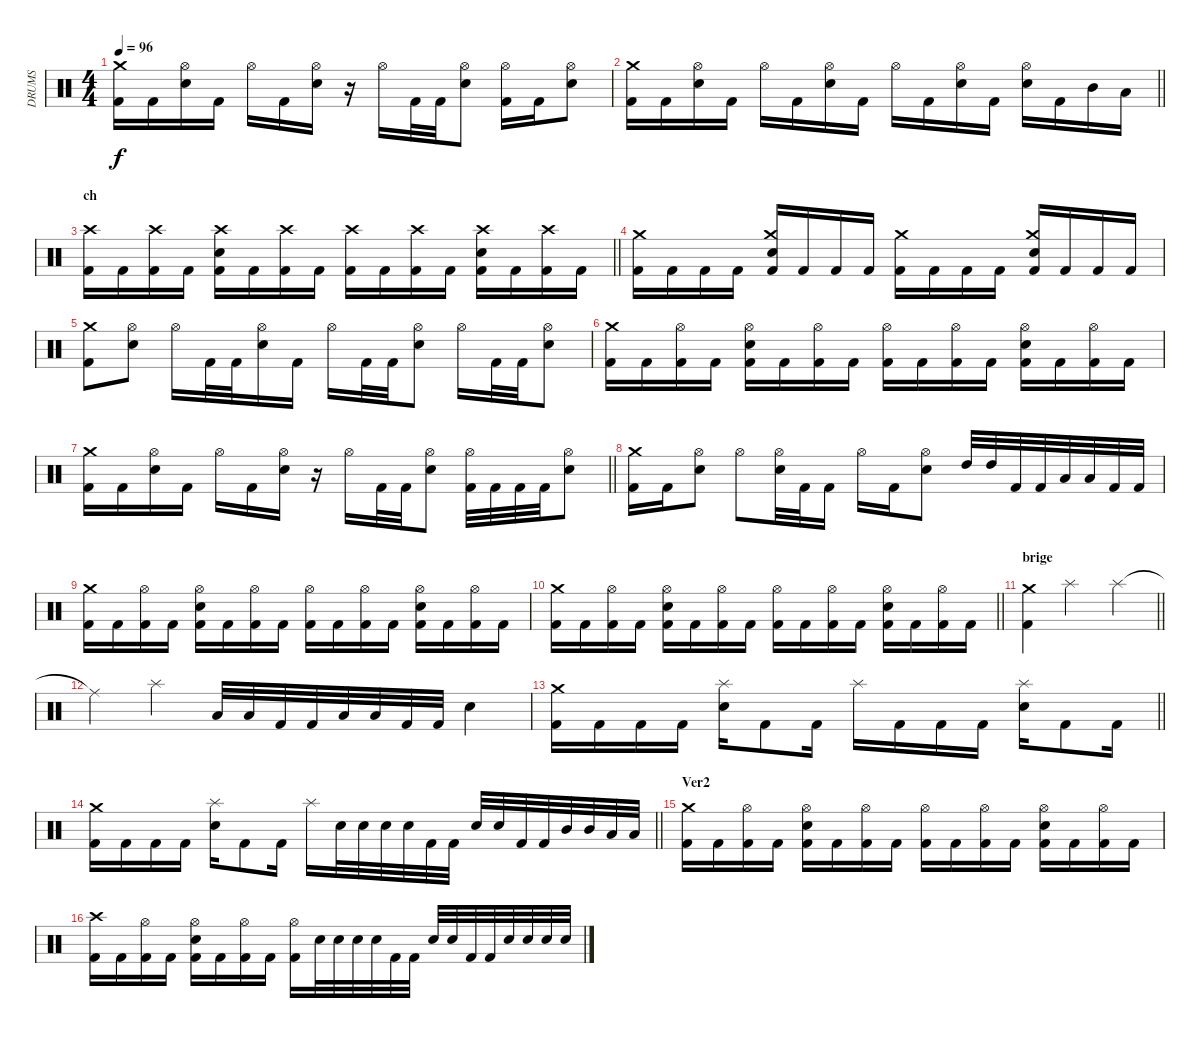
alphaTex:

\track ("DRUMS" "DRUMS") {instrument percussion}
\staff {score}
\articulation defaults
\ts (4 4)
\tempo 96
\clef neutral
\ks c
("Kick (hit) 2" "Crash medium (hit)").16{dy f} "Kick (hit) 2".16 ("Electric Snare (hit)" "Hi-Hat (open)").16 "Kick (hit) 2".16 "Hi-Hat (open)".16 "Kick (hit) 2".16 ("Electric Snare (hit)" "Hi-Hat (open)").16 r.16 "Hi-Hat (open)".16 "Kick (hit) 2".32 "Kick (hit) 2".32 ("Electric Snare (hit)" "Hi-Hat (open)").8 ("Kick (hit) 2" "Hi-Hat (open)").16 "Kick (hit) 2".16 ("Electric Snare (hit)" "Hi-Hat (open)").8 |
\barLineRight lightlight
("Kick (hit) 2" "Crash medium (hit)").16 "Kick (hit) 2".16 ("Electric Snare (hit)" "Hi-Hat (open)").16 "Kick (hit) 2".16 "Hi-Hat (open)".16 "Kick (hit) 2".16 ("Electric Snare (hit)" "Hi-Hat (open)").16 "Kick (hit) 2".16 "Hi-Hat (open)".16 "Kick (hit) 2".16 ("Electric Snare (hit)" "Hi-Hat (open)").16 "Kick (hit) 2".16 ("Electric Snare (hit)" "Hi-Hat (open)").16 "Kick (hit) 2".16 "Mid Tom (hit)".16 "Low Tom (hit)".16 |
\section ("" "ch")
\barLineRight lightlight
("Kick (hit) 2" "Crash high (hit)").16 "Kick (hit) 2".16 ("Kick (hit) 2" "Crash high (hit)").16 "Kick (hit) 2".16 ("Kick (hit) 2" "Electric Snare (hit)" "Crash high (hit)").16 "Kick (hit) 2".16 ("Kick (hit) 2" "Crash high (hit)").16 "Kick (hit) 2".16 ("Kick (hit) 2" "Crash high (hit)").16 "Kick (hit) 2".16 ("Kick (hit) 2" "Crash high (hit)").16 "Kick (hit) 2".16 ("Kick (hit) 2" "Electric Snare (hit)" "Crash high (hit)").16 "Kick (hit) 2".16 ("Kick (hit) 2" "Crash high (hit)").16 "Kick (hit) 2".16 |
("Kick (hit) 2" "Crash medium (hit)").16 "Kick (hit) 2".16 "Kick (hit) 2".16 "Kick (hit) 2".16 ("Kick (hit) 2" "Electric Snare (hit)" "Crash medium (hit)").16 "Kick (hit) 2".16 "Kick (hit) 2".16 "Kick (hit) 2".16 ("Kick (hit) 2" "Crash medium (hit)").16 "Kick (hit) 2".16 "Kick (hit) 2".16 "Kick (hit) 2".16 ("Kick (hit) 2" "Electric Snare (hit)" "Crash medium (hit)").16 "Kick (hit) 2".16 "Kick (hit) 2".16 "Kick (hit) 2".16 |
("Kick (hit) 2" "Crash medium (hit)").8 ("Electric Snare (hit)" "Hi-Hat (open)").8 "Hi-Hat (open)".16 "Kick (hit) 2".32 "Kick (hit) 2".32 ("Electric Snare (hit)" "Hi-Hat (open)").16 "Kick (hit) 2".16 "Hi-Hat (open)".16 "Kick (hit) 2".32 "Kick (hit) 2".32 ("Electric Snare (hit)" "Hi-Hat (open)").8 "Hi-Hat (open)".16 "Kick (hit) 2".32 "Kick (hit) 2".32 ("Electric Snare (hit)" "Hi-Hat (open)").8 |
("Kick (hit) 2" "Crash medium (hit)").16 "Kick (hit) 2".16 ("Kick (hit) 2" "Hi-Hat (open)").16 "Kick (hit) 2".16 ("Kick (hit) 2" "Electric Snare (hit)" "Hi-Hat (open)").16 "Kick (hit) 2".16 ("Kick (hit) 2" "Hi-Hat (open)").16 "Kick (hit) 2".16 ("Kick (hit) 2" "Hi-Hat (open)").16 "Kick (hit) 2".16 ("Kick (hit) 2" "Hi-Hat (open)").16 "Kick (hit) 2".16 ("Kick (hit) 2" "Electric Snare (hit)" "Hi-Hat (open)").16 "Kick (hit) 2".16 ("Kick (hit) 2" "Hi-Hat (open)").16 "Kick (hit) 2".16 |
\barLineRight lightlight
("Kick (hit) 2" "Crash medium (hit)").16 "Kick (hit) 2".16 ("Electric Snare (hit)" "Hi-Hat (open)").16 "Kick (hit) 2".16 "Hi-Hat (open)".16 "Kick (hit) 2".16 ("Electric Snare (hit)" "Hi-Hat (open)").16 r.16 "Hi-Hat (open)".16 "Kick (hit) 2".32 "Kick (hit) 2".32 ("Electric Snare (hit)" "Hi-Hat (open)").8 ("Kick (hit) 2" "Hi-Hat (open)").32 "Kick (hit) 2".32 "Kick (hit) 2".32 "Kick (hit) 2".32 ("Electric Snare (hit)" "Hi-Hat (open)").8 |
("Kick (hit) 2" "Crash medium (hit)").16 "Kick (hit) 2".16 ("Electric Snare (hit)" "Hi-Hat (open)").8 "Hi-Hat (open)".8 ("Electric Snare (hit)" "Hi-Hat (open)").32 "Kick (hit) 2".32 "Kick (hit) 2".16 "Hi-Hat (open)".16 "Kick (hit) 2".16 ("Electric Snare (hit)" "Hi-Hat (open)").8 "High Tom (hit)".32 "High Tom (hit)".32 "Kick (hit) 2".32 "Kick (hit) 2".32 "Low Tom (hit)".32 "Low Tom (hit)".32 "Kick (hit) 2".32 "Kick (hit) 2".32 |
("Kick (hit) 2" "Crash medium (hit)").16 "Kick (hit) 2".16 ("Kick (hit) 2" "Hi-Hat (open)").16 "Kick (hit) 2".16 ("Kick (hit) 2" "Electric Snare (hit)" "Hi-Hat (open)").16 "Kick (hit) 2".16 ("Kick (hit) 2" "Hi-Hat (open)").16 "Kick (hit) 2".16 ("Kick (hit) 2" "Hi-Hat (open)").16 "Kick (hit) 2".16 ("Kick (hit) 2" "Hi-Hat (open)").16 "Kick (hit) 2".16 ("Kick (hit) 2" "Electric Snare (hit)" "Hi-Hat (open)").16 "Kick (hit) 2".16 ("Kick (hit) 2" "Hi-Hat (open)").16 "Kick (hit) 2".16 |
\barLineRight lightlight
("Kick (hit) 2" "Crash medium (hit)").16 "Kick (hit) 2".16 ("Kick (hit) 2" "Hi-Hat (open)").16 "Kick (hit) 2".16 ("Kick (hit) 2" "Electric Snare (hit)" "Hi-Hat (open)").16 "Kick (hit) 2".16 ("Kick (hit) 2" "Hi-Hat (open)").16 "Kick (hit) 2".16 ("Kick (hit) 2" "Hi-Hat (open)").16 "Kick (hit) 2".16 ("Kick (hit) 2" "Hi-Hat (open)").16 "Kick (hit) 2".16 ("Kick (hit) 2" "Electric Snare (hit)" "Hi-Hat (open)").16 "Kick (hit) 2".16 ("Kick (hit) 2" "Hi-Hat (open)").16 "Kick (hit) 2".16 |
\section ("" "brige")
\barLineRight lightlight
("Kick (hit) 2" "Crash medium (hit)").4 "Splash (hit)".2 "Splash (hit)".4 |
"Ride (middle)"{t}.4 "Splash (hit)".4 "Low Tom (hit)".32 "Low Tom (hit)".32 "Kick (hit) 2".32 "Kick (hit) 2".32 "Low Floor Tom (hit)".32 "Low Floor Tom (hit)".32 "Kick (hit) 2".32 "Kick (hit) 2".32 "Electric Snare (hit)".4 |
\barLineRight lightlight
("Kick (hit) 2" "Crash medium (hit)").16 "Kick (hit) 2".16 "Kick (hit) 2".16 "Kick (hit) 2".16 ("Electric Snare (hit)" "Splash (hit)").16 "Kick (hit) 2".8 "Kick (hit) 2".16 "Splash (hit)".16 "Kick (hit) 2".16 "Kick (hit) 2".16 "Kick (hit) 2".16 ("Electric Snare (hit)" "Splash (hit)").16 "Kick (hit) 2".8 "Kick (hit) 2".16 |
\barLineRight lightlight
("Kick (hit) 2" "Crash medium (hit)").16 "Kick (hit) 2".16 "Kick (hit) 2".16 "Kick (hit) 2".16 ("Electric Snare (hit)" "Splash (hit)").16 "Kick (hit) 2".8 "Kick (hit) 2".16 "Splash (hit)".16 "Electric Snare (hit)".32 "Electric Snare (hit)".32 "Electric Snare (hit)".32 "Electric Snare (hit)".32 "Kick (hit) 2".32 "Kick (hit) 2".32 "Electric Snare (hit)".32 "Electric Snare (hit)".32 "Kick (hit) 2".32 "Kick (hit) 2".32 "Mid Tom (hit)".32 "Mid Tom (hit)".32 "Low Tom (hit)".32 "Low Tom (hit)".32 |
\section ("" "Ver2")
("Kick (hit) 2" "Crash medium (hit)").16 "Kick (hit) 2".16 ("Kick (hit) 2" "Hi-Hat (open)").16 "Kick (hit) 2".16 ("Kick (hit) 2" "Electric Snare (hit)" "Hi-Hat (open)").16 "Kick (hit) 2".16 ("Kick (hit) 2" "Hi-Hat (open)").16 "Kick (hit) 2".16 ("Kick (hit) 2" "Hi-Hat (open)").16 "Kick (hit) 2".16 ("Kick (hit) 2" "Hi-Hat (open)").16 "Kick (hit) 2".16 ("Kick (hit) 2" "Electric Snare (hit)" "Hi-Hat (open)").16 "Kick (hit) 2".16 ("Kick (hit) 2" "Hi-Hat (open)").16 "Kick (hit) 2".16 |
("Kick (hit) 2" "Crash high (hit)").16 "Kick (hit) 2".16 ("Kick (hit) 2" "Hi-Hat (open)").16 "Kick (hit) 2".16 ("Kick (hit) 2" "Electric Snare (hit)" "Hi-Hat (open)").16 "Kick (hit) 2".16 ("Kick (hit) 2" "Hi-Hat (open)").16 "Kick (hit) 2".16 ("Kick (hit) 2" "Hi-Hat (open)").16 "Electric Snare (hit)".32 "Electric Snare (hit)".32 "Electric Snare (hit)".32 "Electric Snare (hit)".32 "Kick (hit) 2".32 "Kick (hit) 2".32 "Electric Snare (hit)".32 "Electric Snare (hit)".32 "Kick (hit) 2".32 "Kick (hit) 2".32 "Electric Snare (hit)".32 "Electric Snare (hit)".32 "Electric Snare (hit)".32 "Electric Snare (hit)".32
